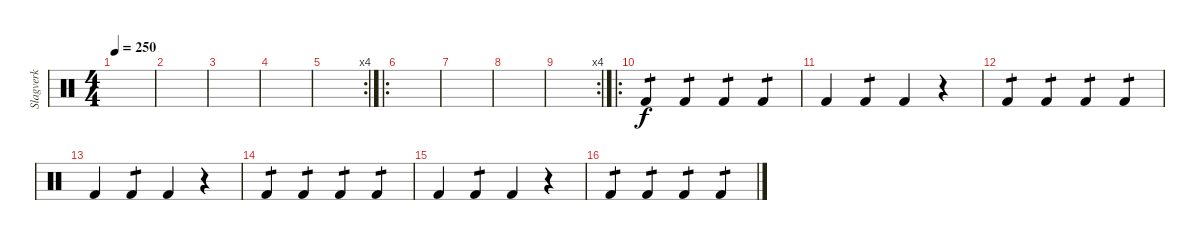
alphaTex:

\track ("Slagverk" "Slagverk") {instrument percussion}
\staff {score}
\articulation defaults
\ts (4 4)
\tempo 250
\clef neutral
\ks c
|
|
|
|
\rc 4
|
\ro
|
|
|
\rc 4
|
\ro "Kick (hit) 2".4{tp 1} "Kick (hit) 2".4{tp 1} "Kick (hit) 2".4{tp 1} "Kick (hit) 2".4{tp 1}
|
"Kick (hit) 2".4 "Kick (hit) 2".4{tp 1} "Kick (hit) 2".4 r.4 |
"Kick (hit) 2".4{tp 1} "Kick (hit) 2".4{tp 1} "Kick (hit) 2".4{tp 1} "Kick (hit) 2".4{tp 1} |
"Kick (hit) 2".4 "Kick (hit) 2".4{tp 1} "Kick (hit) 2".4 r.4 |
"Kick (hit) 2".4{tp 1} "Kick (hit) 2".4{tp 1} "Kick (hit) 2".4{tp 1} "Kick (hit) 2".4{tp 1} |
"Kick (hit) 2".4 "Kick (hit) 2".4{tp 1} "Kick (hit) 2".4 r.4 |
"Kick (hit) 2".4{tp 1} "Kick (hit) 2".4{tp 1} "Kick (hit) 2".4{tp 1} "Kick (hit) 2".4{tp 1}
